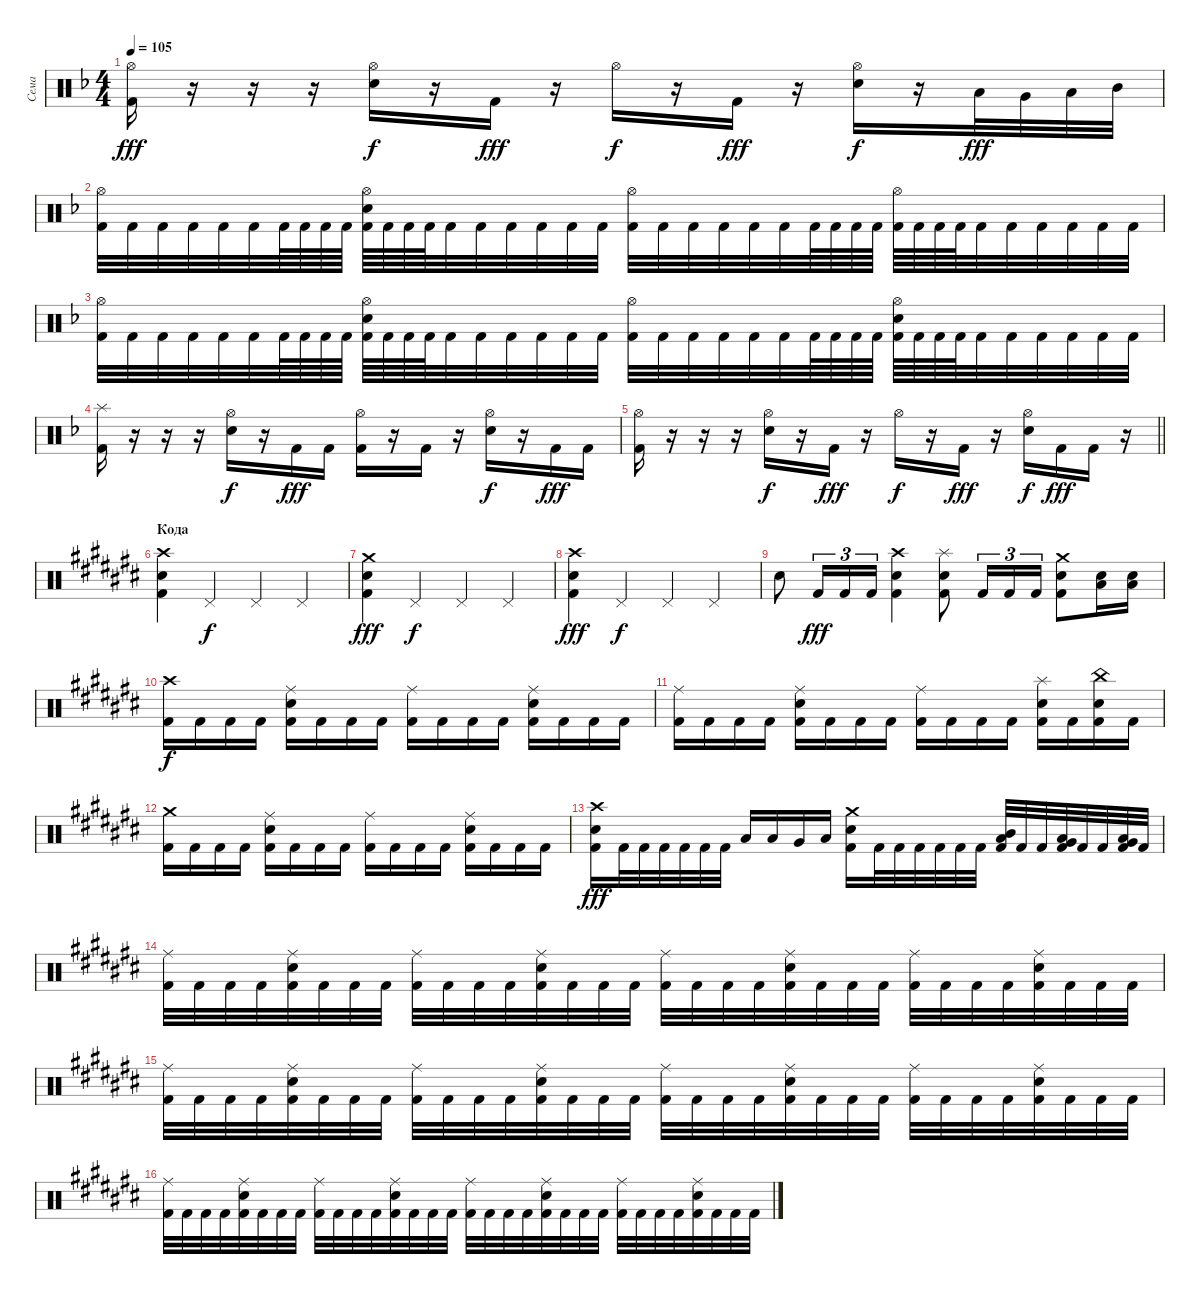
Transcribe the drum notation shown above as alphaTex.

\track ("Сема" "Сема") {instrument percussion}
\staff {score}
\articulation defaults
\ts (4 4)
\tempo 105
\clef neutral
\ks dminor
("Hi-Hat (open)" "Kick (hit) 2").16{dy fff} r.16 r.16 r.16 ("Hi-Hat (open)" "Electric Snare (hit)").16{dy f} r.16 "Kick (hit) 2".16{dy fff} r.16 "Hi-Hat (open)".16{dy f} r.16 "Kick (hit) 2".16{dy fff} r.16 ("Hi-Hat (open)" "Electric Snare (hit)").16{dy f} r.16 "Low Floor Tom (hit)".32{dy fff} "Very Low Tom (hit)".32 "Low Tom (hit)".32 "Mid Tom (hit)".32 |
("Hi-Hat (open)" "Kick (hit) 2").32 "Kick (hit) 2".32 "Kick (hit) 2".32 "Kick (hit) 2".32 "Kick (hit) 2".32 "Kick (hit) 2".32 "Kick (hit) 2".64 "Kick (hit) 2".64 "Kick (hit) 2".64 "Kick (hit) 2".64 ("Hi-Hat (open)" "Electric Snare (hit)" "Kick (hit) 2").64 "Kick (hit) 2".64 "Kick (hit) 2".64 "Kick (hit) 2".64 "Kick (hit) 2".32 "Kick (hit) 2".32 "Kick (hit) 2".32 "Kick (hit) 2".32 "Kick (hit) 2".32 "Kick (hit) 2".32 ("Hi-Hat (open)" "Kick (hit) 2").32 "Kick (hit) 2".32 "Kick (hit) 2".32 "Kick (hit) 2".32 "Kick (hit) 2".32 "Kick (hit) 2".32 "Kick (hit) 2".64 "Kick (hit) 2".64 "Kick (hit) 2".64 "Kick (hit) 2".64 ("Hi-Hat (open)" "Kick (hit) 2").64 "Kick (hit) 2".64 "Kick (hit) 2".64 "Kick (hit) 2".64 "Kick (hit) 2".32 "Kick (hit) 2".32 "Kick (hit) 2".32 "Kick (hit) 2".32 "Kick (hit) 2".32 "Kick (hit) 2".32 |
("Hi-Hat (open)" "Kick (hit) 2").32 "Kick (hit) 2".32 "Kick (hit) 2".32 "Kick (hit) 2".32 "Kick (hit) 2".32 "Kick (hit) 2".32 "Kick (hit) 2".64 "Kick (hit) 2".64 "Kick (hit) 2".64 "Kick (hit) 2".64 ("Hi-Hat (open)" "Electric Snare (hit)" "Kick (hit) 2").64 "Kick (hit) 2".64 "Kick (hit) 2".64 "Kick (hit) 2".64 "Kick (hit) 2".32 "Kick (hit) 2".32 "Kick (hit) 2".32 "Kick (hit) 2".32 "Kick (hit) 2".32 "Kick (hit) 2".32 ("Hi-Hat (open)" "Kick (hit) 2").32 "Kick (hit) 2".32 "Kick (hit) 2".32 "Kick (hit) 2".32 "Kick (hit) 2".32 "Kick (hit) 2".32 "Kick (hit) 2".64 "Kick (hit) 2".64 "Kick (hit) 2".64 "Kick (hit) 2".64 ("Hi-Hat (open)" "Electric Snare (hit)" "Kick (hit) 2").64 "Kick (hit) 2".64 "Kick (hit) 2".64 "Kick (hit) 2".64 "Kick (hit) 2".32 "Kick (hit) 2".32 "Kick (hit) 2".32 "Kick (hit) 2".32 "Kick (hit) 2".32 "Kick (hit) 2".32 |
("Splash (hit)" "Kick (hit) 2").16 r.16 r.16 r.16 ("Hi-Hat (open)" "Electric Snare (hit)").16{dy f} r.16 "Kick (hit) 2".16{dy fff} "Kick (hit) 2".16 ("Hi-Hat (open)" "Kick (hit) 2").16 r.16 "Kick (hit) 2".16 r.16 ("Hi-Hat (open)" "Electric Snare (hit)").16{dy f} r.16 "Kick (hit) 2".16{dy fff} "Kick (hit) 2".16 |
\barLineRight lightlight
("Hi-Hat (open)" "Kick (hit) 2").16 r.16 r.16 r.16 ("Hi-Hat (open)" "Electric Snare (hit)").16{dy f} r.16 "Kick (hit) 2".16{dy fff} r.16 "Hi-Hat (open)".16{dy f} r.16 "Kick (hit) 2".16{dy fff} r.16 ("Hi-Hat (open)" "Electric Snare (hit)").16{dy f} "Kick (hit) 2".16{dy fff} "Kick (hit) 2".16 r.16 |
\section ("" "Кода")
\ks c#
("Crash high (hit)" "Electric Snare (hit)" "Kick (hit) 2").4 "Pedal Hi-Hat (hit)".4{dy f} "Pedal Hi-Hat (hit)".4 "Pedal Hi-Hat (hit)".4 |
("Crash medium (hit)" "Electric Snare (hit)" "Kick (hit) 2").4{dy fff} "Pedal Hi-Hat (hit)".4{dy f} "Pedal Hi-Hat (hit)".4 "Pedal Hi-Hat (hit)".4 |
("Crash high (hit)" "Electric Snare (hit)" "Kick (hit) 2").4{dy fff} "Pedal Hi-Hat (hit)".4{dy f} "Pedal Hi-Hat (hit)".4 "Pedal Hi-Hat (hit)".4 |
"Electric Snare (hit)".8 "Kick (hit) 2".16{tu (3 2) dy fff} "Kick (hit) 2".16{tu (3 2)} "Kick (hit) 2".16{tu (3 2)} ("Crash high (hit)" "Electric Snare (hit)" "Kick (hit) 2").4 ("Splash (hit)" "Electric Snare (hit)" "Kick (hit) 2").8 "Kick (hit) 2".16{tu (3 2)} "Kick (hit) 2".16{tu (3 2)} "Kick (hit) 2".16{tu (3 2)} ("Crash medium (hit)" "Electric Snare (hit)" "Kick (hit) 2").8 ("Electric Snare (hit)" "Low Floor Tom (hit)").16 ("Electric Snare (hit)" "Low Floor Tom (hit)").16 |
("Crash high (hit)" "Kick (hit) 2").16{dy f} "Kick (hit) 2".16 "Kick (hit) 2".16 "Kick (hit) 2".16 ("Ride (middle)" "Electric Snare (hit)" "Kick (hit) 2").16 "Kick (hit) 2".16 "Kick (hit) 2".16 "Kick (hit) 2".16 ("Ride (middle)" "Kick (hit) 2").16 "Kick (hit) 2".16 "Kick (hit) 2".16 "Kick (hit) 2".16 ("Ride (middle)" "Electric Snare (hit)" "Kick (hit) 2").16 "Kick (hit) 2".16 "Kick (hit) 2".16 "Kick (hit) 2".16 |
("Ride (middle)" "Kick (hit) 2").16 "Kick (hit) 2".16 "Kick (hit) 2".16 "Kick (hit) 2".16 ("Ride (middle)" "Electric Snare (hit)" "Kick (hit) 2").16 "Kick (hit) 2".16 "Kick (hit) 2".16 "Kick (hit) 2".16 ("Ride (middle)" "Kick (hit) 2").16 "Kick (hit) 2".16 "Kick (hit) 2".16 "Kick (hit) 2".16 ("Splash (hit)" "Electric Snare (hit)" "Kick (hit) 2").16 "Kick (hit) 2".16 ("China (hit)" "Electric Snare (hit)" "Kick (hit) 2").16 "Kick (hit) 2".16 |
("Crash medium (hit)" "Kick (hit) 2").16 "Kick (hit) 2".16 "Kick (hit) 2".16 "Kick (hit) 2".16 ("Ride (middle)" "Electric Snare (hit)" "Kick (hit) 2").16 "Kick (hit) 2".16 "Kick (hit) 2".16 "Kick (hit) 2".16 ("Ride (middle)" "Kick (hit) 2").16 "Kick (hit) 2".16 "Kick (hit) 2".16 "Kick (hit) 2".16 ("Ride (middle)" "Electric Snare (hit)" "Kick (hit) 2").16 "Kick (hit) 2".16 "Kick (hit) 2".16 "Kick (hit) 2".16 |
("Crash high (hit)" "Electric Snare (hit)" "Kick (hit) 2").16{dy fff} "Kick (hit) 2".32 "Kick (hit) 2".32 "Kick (hit) 2".32 "Kick (hit) 2".32 "Kick (hit) 2".32 "Kick (hit) 2".32 "Low Tom (hit)".16 "Low Tom (hit)".16 "Very Low Tom (hit)".16 "Low Floor Tom (hit)".16 ("Crash medium (hit)" "Electric Snare (hit)" "Kick (hit) 2").16 "Kick (hit) 2".32 "Kick (hit) 2".32 "Kick (hit) 2".32 "Kick (hit) 2".32 "Kick (hit) 2".32 "Kick (hit) 2".32 ("Mid Tom (hit)" "Low Tom (hit)" "Kick (hit) 2").32 "Kick (hit) 2".32 "Kick (hit) 2".32 ("Low Tom (hit)" "Very Low Tom (hit)" "Kick (hit) 2").32 "Kick (hit) 2".32 "Kick (hit) 2".32 ("Very Low Tom (hit)" "Low Floor Tom (hit)" "Kick (hit) 2").32 "Kick (hit) 2".32 |
("Ride (middle)" "Kick (hit) 2").32 "Kick (hit) 2".32 "Kick (hit) 2".32 "Kick (hit) 2".32 ("Ride (middle)" "Electric Snare (hit)" "Kick (hit) 2").32 "Kick (hit) 2".32 "Kick (hit) 2".32 "Kick (hit) 2".32 ("Ride (middle)" "Kick (hit) 2").32 "Kick (hit) 2".32 "Kick (hit) 2".32 "Kick (hit) 2".32 ("Ride (middle)" "Electric Snare (hit)" "Kick (hit) 2").32 "Kick (hit) 2".32 "Kick (hit) 2".32 "Kick (hit) 2".32 ("Ride (middle)" "Kick (hit) 2").32 "Kick (hit) 2".32 "Kick (hit) 2".32 "Kick (hit) 2".32 ("Ride (middle)" "Electric Snare (hit)" "Kick (hit) 2").32 "Kick (hit) 2".32 "Kick (hit) 2".32 "Kick (hit) 2".32 ("Ride (middle)" "Kick (hit) 2").32 "Kick (hit) 2".32 "Kick (hit) 2".32 "Kick (hit) 2".32 ("Ride (middle)" "Electric Snare (hit)" "Kick (hit) 2").32 "Kick (hit) 2".32 "Kick (hit) 2".32 "Kick (hit) 2".32 |
("Ride (middle)" "Kick (hit) 2").32 "Kick (hit) 2".32 "Kick (hit) 2".32 "Kick (hit) 2".32 ("Ride (middle)" "Electric Snare (hit)" "Kick (hit) 2").32 "Kick (hit) 2".32 "Kick (hit) 2".32 "Kick (hit) 2".32 ("Ride (middle)" "Kick (hit) 2").32 "Kick (hit) 2".32 "Kick (hit) 2".32 "Kick (hit) 2".32 ("Ride (middle)" "Electric Snare (hit)" "Kick (hit) 2").32 "Kick (hit) 2".32 "Kick (hit) 2".32 "Kick (hit) 2".32 ("Ride (middle)" "Kick (hit) 2").32 "Kick (hit) 2".32 "Kick (hit) 2".32 "Kick (hit) 2".32 ("Ride (middle)" "Electric Snare (hit)" "Kick (hit) 2").32 "Kick (hit) 2".32 "Kick (hit) 2".32 "Kick (hit) 2".32 ("Ride (middle)" "Kick (hit) 2").32 "Kick (hit) 2".32 "Kick (hit) 2".32 "Kick (hit) 2".32 ("Ride (middle)" "Electric Snare (hit)" "Kick (hit) 2").32 "Kick (hit) 2".32 "Kick (hit) 2".32 "Kick (hit) 2".32 |
("Ride (middle)" "Kick (hit) 2").32 "Kick (hit) 2".32 "Kick (hit) 2".32 "Kick (hit) 2".32 ("Ride (middle)" "Electric Snare (hit)" "Kick (hit) 2").32 "Kick (hit) 2".32 "Kick (hit) 2".32 "Kick (hit) 2".32 ("Ride (middle)" "Kick (hit) 2").32 "Kick (hit) 2".32 "Kick (hit) 2".32 "Kick (hit) 2".32 ("Ride (middle)" "Electric Snare (hit)" "Kick (hit) 2").32 "Kick (hit) 2".32 "Kick (hit) 2".32 "Kick (hit) 2".32 ("Ride (middle)" "Kick (hit) 2").32 "Kick (hit) 2".32 "Kick (hit) 2".32 "Kick (hit) 2".32 ("Ride (middle)" "Electric Snare (hit)" "Kick (hit) 2").32 "Kick (hit) 2".32 "Kick (hit) 2".32 "Kick (hit) 2".32 ("Ride (middle)" "Kick (hit) 2").32 "Kick (hit) 2".32 "Kick (hit) 2".32 "Kick (hit) 2".32 ("Ride (middle)" "Electric Snare (hit)" "Kick (hit) 2").32 "Kick (hit) 2".32 "Kick (hit) 2".32 "Kick (hit) 2".32
